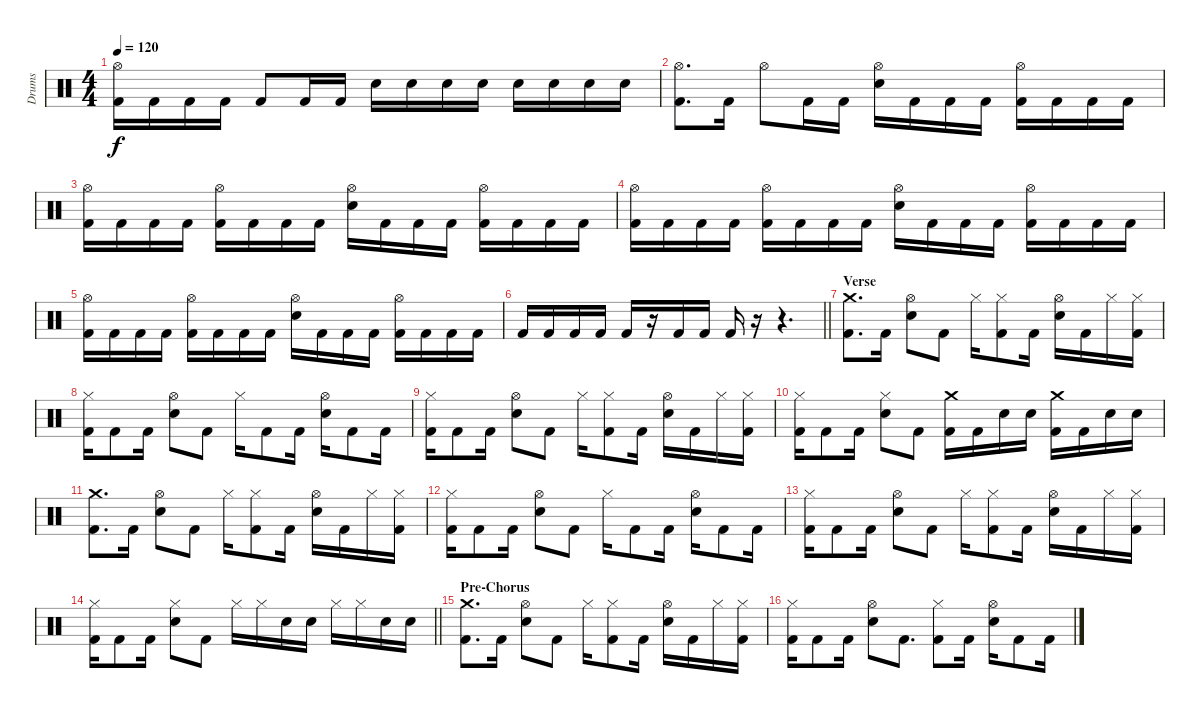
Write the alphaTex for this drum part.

\track ("Drums" "Drums") {instrument percussion}
\staff {score}
\articulation defaults
\ts (4 4)
\tempo 120
\clef neutral
\ks c
("Hi-Hat (open)" "Kick (hit) 2").16{dy f} "Kick (hit) 2".16 "Kick (hit) 2".16 "Kick (hit) 2".16 "Kick (hit) 2".8 "Kick (hit) 2".16 "Kick (hit) 2".16 "Snare (hit) 2".16 "Snare (hit) 2".16 "Snare (hit) 2".16 "Snare (hit) 2".16 "Snare (hit) 2".16 "Snare (hit) 2".16 "Snare (hit) 2".16 "Snare (hit) 2".16 |
("Hi-Hat (open)" "Kick (hit) 2").8{d} "Kick (hit) 2".16 "Hi-Hat (open)".8 "Kick (hit) 2".16 "Kick (hit) 2".16 ("Hi-Hat (open)" "Snare (hit) 2").16 "Kick (hit) 2".16 "Kick (hit) 2".16 "Kick (hit) 2".16 ("Hi-Hat (open)" "Kick (hit) 2").16 "Kick (hit) 2".16 "Kick (hit) 2".16 "Kick (hit) 2".16 |
("Hi-Hat (open)" "Kick (hit) 2").16 "Kick (hit) 2".16 "Kick (hit) 2".16 "Kick (hit) 2".16 ("Hi-Hat (open)" "Kick (hit) 2").16 "Kick (hit) 2".16 "Kick (hit) 2".16 "Kick (hit) 2".16 ("Hi-Hat (open)" "Snare (hit) 2").16 "Kick (hit) 2".16 "Kick (hit) 2".16 "Kick (hit) 2".16 ("Hi-Hat (open)" "Kick (hit) 2").16 "Kick (hit) 2".16 "Kick (hit) 2".16 "Kick (hit) 2".16 |
("Hi-Hat (open)" "Kick (hit) 2").16 "Kick (hit) 2".16 "Kick (hit) 2".16 "Kick (hit) 2".16 ("Hi-Hat (open)" "Kick (hit) 2").16 "Kick (hit) 2".16 "Kick (hit) 2".16 "Kick (hit) 2".16 ("Hi-Hat (open)" "Snare (hit) 2").16 "Kick (hit) 2".16 "Kick (hit) 2".16 "Kick (hit) 2".16 ("Hi-Hat (open)" "Kick (hit) 2").16 "Kick (hit) 2".16 "Kick (hit) 2".16 "Kick (hit) 2".16 |
("Hi-Hat (open)" "Kick (hit) 2").16 "Kick (hit) 2".16 "Kick (hit) 2".16 "Kick (hit) 2".16 ("Hi-Hat (open)" "Kick (hit) 2").16 "Kick (hit) 2".16 "Kick (hit) 2".16 "Kick (hit) 2".16 ("Hi-Hat (open)" "Snare (hit) 2").16 "Kick (hit) 2".16 "Kick (hit) 2".16 "Kick (hit) 2".16 ("Hi-Hat (open)" "Kick (hit) 2").16 "Kick (hit) 2".16 "Kick (hit) 2".16 "Kick (hit) 2".16 |
\barLineRight lightlight "Kick (hit) 2".16 "Kick (hit) 2".16 "Kick (hit) 2".16 "Kick (hit) 2".16 "Kick (hit) 2".16
r.16 "Kick (hit) 2".16 "Kick (hit) 2".16 "Kick (hit) 2".16 r.16 r.4{d} |
\section ("" "Verse")
("Crash medium (hit)" "Kick (hit) 2").8{d} "Kick (hit) 2".16 ("Hi-Hat (open)" "Snare (hit) 2").8 "Kick (hit) 2".8 "Hi-Hat (closed)".16 ("Hi-Hat (closed)" "Kick (hit) 2").8 "Kick (hit) 2".16 ("Hi-Hat (open)" "Snare (hit) 2").16 "Kick (hit) 2".16 "Hi-Hat (closed)".16 ("Hi-Hat (closed)" "Kick (hit) 2").16 |
("Hi-Hat (closed)" "Kick (hit) 2").16 "Kick (hit) 2".8 "Kick (hit) 2".16 ("Hi-Hat (open)" "Snare (hit) 2").8 "Kick (hit) 2".8 "Hi-Hat (closed)".16 "Kick (hit) 2".8 "Kick (hit) 2".16 ("Hi-Hat (open)" "Snare (hit) 2").16 "Kick (hit) 2".8 "Kick (hit) 2".16 |
("Hi-Hat (closed)" "Kick (hit) 2").16 "Kick (hit) 2".8 "Kick (hit) 2".16 ("Hi-Hat (open)" "Snare (hit) 2").8 "Kick (hit) 2".8 "Hi-Hat (closed)".16 ("Hi-Hat (closed)" "Kick (hit) 2").8 "Kick (hit) 2".16 ("Hi-Hat (open)" "Snare (hit) 2").16 "Kick (hit) 2".16 "Hi-Hat (closed)".16 ("Hi-Hat (closed)" "Kick (hit) 2").16 |
("Hi-Hat (closed)" "Kick (hit) 2").16 "Kick (hit) 2".8 "Kick (hit) 2".16 ("Hi-Hat (closed)" "Snare (hit) 2").8 "Kick (hit) 2".8 ("Crash medium (hit)" "Kick (hit) 2").16 "Kick (hit) 2".16 "Snare (hit) 2".16 "Snare (hit) 2".16 ("Crash medium (hit)" "Kick (hit) 2").16 "Kick (hit) 2".16 "Snare (hit) 2".16 "Snare (hit) 2".16 |
("Crash medium (hit)" "Kick (hit) 2").8{d} "Kick (hit) 2".16 ("Hi-Hat (open)" "Snare (hit) 2").8 "Kick (hit) 2".8 "Hi-Hat (closed)".16 ("Hi-Hat (closed)" "Kick (hit) 2").8 "Kick (hit) 2".16 ("Hi-Hat (open)" "Snare (hit) 2").16 "Kick (hit) 2".16 "Hi-Hat (closed)".16 ("Hi-Hat (closed)" "Kick (hit) 2").16 |
("Hi-Hat (closed)" "Kick (hit) 2").16 "Kick (hit) 2".8 "Kick (hit) 2".16 ("Hi-Hat (open)" "Snare (hit) 2").8 "Kick (hit) 2".8 "Hi-Hat (closed)".16 "Kick (hit) 2".8 "Kick (hit) 2".16 ("Hi-Hat (open)" "Snare (hit) 2").16 "Kick (hit) 2".8 "Kick (hit) 2".16 |
("Hi-Hat (closed)" "Kick (hit) 2").16 "Kick (hit) 2".8 "Kick (hit) 2".16 ("Hi-Hat (open)" "Snare (hit) 2").8 "Kick (hit) 2".8 "Hi-Hat (closed)".16 ("Hi-Hat (closed)" "Kick (hit) 2").8 "Kick (hit) 2".16 ("Hi-Hat (open)" "Snare (hit) 2").16 "Kick (hit) 2".16 "Hi-Hat (closed)".16 ("Hi-Hat (closed)" "Kick (hit) 2").16 |
\barLineRight lightlight
("Hi-Hat (closed)" "Kick (hit) 2").16 "Kick (hit) 2".8 "Kick (hit) 2".16 ("Hi-Hat (closed)" "Snare (hit) 2").8 "Kick (hit) 2".8 "Hi-Hat (closed)".16 "Hi-Hat (closed)".16 "Snare (hit) 2".16 "Snare (hit) 2".16 "Hi-Hat (closed)".16 "Hi-Hat (closed)".16 "Snare (hit) 2".16 "Snare (hit) 2".16 |
\section ("" "Pre-Chorus")
("Crash medium (hit)" "Kick (hit) 2").8{d} "Kick (hit) 2".16 ("Hi-Hat (open)" "Snare (hit) 2").8 "Kick (hit) 2".8 "Hi-Hat (closed)".16 ("Hi-Hat (closed)" "Kick (hit) 2").8 "Kick (hit) 2".16 ("Hi-Hat (open)" "Snare (hit) 2").16 "Kick (hit) 2".16 "Hi-Hat (closed)".16 ("Hi-Hat (closed)" "Kick (hit) 2").16 |
("Hi-Hat (closed)" "Kick (hit) 2").16 "Kick (hit) 2".8 "Kick (hit) 2".16 ("Hi-Hat (open)" "Snare (hit) 2").8 "Kick (hit) 2".8{d} ("Hi-Hat (closed)" "Kick (hit) 2").8 "Kick (hit) 2".16 ("Hi-Hat (open)" "Snare (hit) 2").16 "Kick (hit) 2".8 "Kick (hit) 2".16
